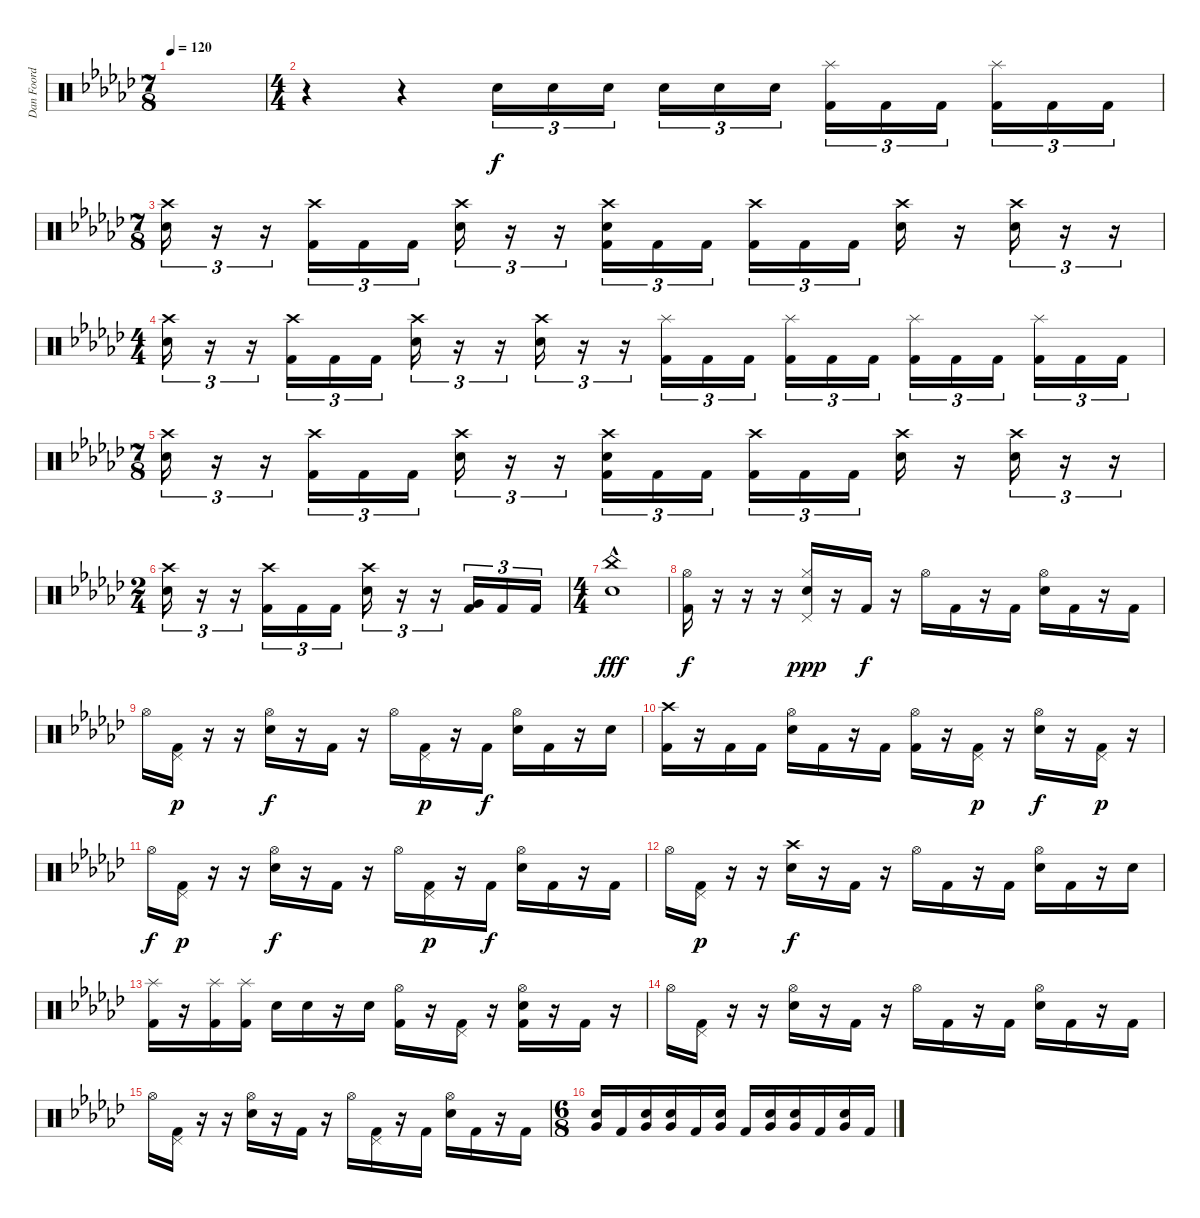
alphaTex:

\track ("Dan Foord 2" "Dan Foord ") {instrument percussion}
\staff {score}
\articulation defaults
\ts (7 8)
\tempo 120
\clef neutral
\ks gb
|
\ts (4 4)
r.4 r.4 "Snare (hit) 2".16{tu (3 2)} "Snare (hit) 2".16{tu (3 2)} "Snare (hit) 2".16{tu (3 2) beam splitsecondary} "Snare (hit) 2".16{tu (3 2)} "Snare (hit) 2".16{tu (3 2)} "Snare (hit) 2".16{tu (3 2)} ("Splash (hit)" "Kick (hit) 2").16{tu (3 2)} "Kick (hit) 2".16{tu (3 2)} "Kick (hit) 2".16{tu (3 2) beam splitsecondary} ("Splash (hit)" "Kick (hit) 2").16{tu (3 2)} "Kick (hit) 2".16{tu (3 2)} "Kick (hit) 2".16{tu (3 2)} |
\ts (7 8)
("Crash high (hit)" "Snare (hit) 2").16{tu (3 2)} r.16{tu (3 2)} r.16{tu (3 2)} ("Crash high (hit)" "Kick (hit) 2").16{tu (3 2)} "Kick (hit) 2".16{tu (3 2)} "Kick (hit) 2".16{tu (3 2)} ("Crash high (hit)" "Snare (hit) 2").16{tu (3 2)} r.16{tu (3 2)} r.16{tu (3 2)} ("Crash high (hit)" "Snare (hit) 2" "Kick (hit) 2").16{tu (3 2)} "Kick (hit) 2".16{tu (3 2)} "Kick (hit) 2".16{tu (3 2)} ("Crash high (hit)" "Kick (hit) 2").16{tu (3 2)} "Kick (hit) 2".16{tu (3 2)} "Kick (hit) 2".16{tu (3 2)} ("Crash high (hit)" "Snare (hit) 2").16 r.16 ("Crash high (hit)" "Snare (hit) 2").16{tu (3 2)} r.16{tu (3 2)} r.16{tu (3 2)} |
\ts (4 4)
("Crash high (hit)" "Snare (hit) 2").16{tu (3 2)} r.16{tu (3 2)} r.16{tu (3 2)} ("Crash high (hit)" "Kick (hit) 2").16{tu (3 2)} "Kick (hit) 2".16{tu (3 2)} "Kick (hit) 2".16{tu (3 2)} ("Crash high (hit)" "Snare (hit) 2").16{tu (3 2)} r.16{tu (3 2)} r.16{tu (3 2)} ("Crash high (hit)" "Snare (hit) 2").16{tu (3 2)} r.16{tu (3 2)} r.16{tu (3 2)} ("Splash (hit)" "Kick (hit) 2").16{tu (3 2)} "Kick (hit) 2".16{tu (3 2)} "Kick (hit) 2".16{tu (3 2) beam splitsecondary} ("Splash (hit)" "Kick (hit) 2").16{tu (3 2)} "Kick (hit) 2".16{tu (3 2)} "Kick (hit) 2".16{tu (3 2)} ("Splash (hit)" "Kick (hit) 2").16{tu (3 2)} "Kick (hit) 2".16{tu (3 2)} "Kick (hit) 2".16{tu (3 2) beam splitsecondary} ("Splash (hit)" "Kick (hit) 2").16{tu (3 2)} "Kick (hit) 2".16{tu (3 2)} "Kick (hit) 2".16{tu (3 2)} |
\ts (7 8)
("Crash high (hit)" "Snare (hit) 2").16{tu (3 2)} r.16{tu (3 2)} r.16{tu (3 2)} ("Crash high (hit)" "Kick (hit) 2").16{tu (3 2)} "Kick (hit) 2".16{tu (3 2)} "Kick (hit) 2".16{tu (3 2)} ("Crash high (hit)" "Snare (hit) 2").16{tu (3 2)} r.16{tu (3 2)} r.16{tu (3 2)} ("Crash high (hit)" "Snare (hit) 2" "Kick (hit) 2").16{tu (3 2)} "Kick (hit) 2".16{tu (3 2)} "Kick (hit) 2".16{tu (3 2)} ("Crash high (hit)" "Kick (hit) 2").16{tu (3 2)} "Kick (hit) 2".16{tu (3 2)} "Kick (hit) 2".16{tu (3 2)} ("Crash high (hit)" "Snare (hit) 2").16 r.16 ("Crash high (hit)" "Snare (hit) 2").16{tu (3 2)} r.16{tu (3 2)} r.16{tu (3 2)} |
\ts (2 4)
("Crash high (hit)" "Snare (hit) 2").16{tu (3 2)} r.16{tu (3 2)} r.16{tu (3 2)} ("Crash high (hit)" "Kick (hit) 2").16{tu (3 2)} "Kick (hit) 2".16{tu (3 2)} "Kick (hit) 2".16{tu (3 2)} ("Crash high (hit)" "Snare (hit) 2").16{tu (3 2)} r.16{tu (3 2)} r.16{tu (3 2)} ("Very Low Tom (hit)" "Kick (hit) 2").16{tu (3 2)} "Kick (hit) 2".16{tu (3 2)} "Kick (hit) 2".16{tu (3 2)} |
\ts (4 4)
("China (hit)" "Snare (hit) 2"{hac}).1{dy fff} |
("Hi-Hat (open)" "Kick (hit) 2").16{dy f} r.16 r.16 r.16 ("Hi-Hat (closed)" "Snare (hit) 2" "Pedal Hi-Hat (hit)").16{dy ppp} r.16 "Kick (hit) 2".16{dy f} r.16 "Hi-Hat (open)".16 "Kick (hit) 2".16 r.16 "Kick (hit) 2".16 ("Hi-Hat (open)" "Snare (hit) 2").16 "Kick (hit) 2".16 r.16 "Kick (hit) 2".16 |
"Hi-Hat (open)".16 ("Pedal Hi-Hat (hit)" "Kick (hit) 2").16{dy p} r.16 r.16 ("Hi-Hat (open)" "Snare (hit) 2").16{dy f} r.16 "Kick (hit) 2".16 r.16 "Hi-Hat (open)".16 ("Pedal Hi-Hat (hit)" "Kick (hit) 2").16{dy p} r.16 "Kick (hit) 2".16{dy f} ("Hi-Hat (open)" "Snare (hit) 2").16 "Kick (hit) 2".16 r.16 "Snare (hit) 2".16 |
("Crash high (hit)" "Kick (hit) 2").16 r.16 "Kick (hit) 2".16 "Kick (hit) 2".16 ("Hi-Hat (open)" "Snare (hit) 2").16 "Kick (hit) 2".16 r.16 "Kick (hit) 2".16 ("Hi-Hat (open)" "Kick (hit) 2").16 r.16 ("Pedal Hi-Hat (hit)" "Kick (hit) 2").16{dy p} r.16 ("Hi-Hat (open)" "Snare (hit) 2").16{dy f} r.16 ("Pedal Hi-Hat (hit)" "Kick (hit) 2").16{dy p} r.16 |
"Hi-Hat (open)".16{dy f} ("Pedal Hi-Hat (hit)" "Kick (hit) 2").16{dy p} r.16 r.16 ("Hi-Hat (open)" "Snare (hit) 2").16{dy f} r.16 "Kick (hit) 2".16 r.16 "Hi-Hat (open)".16 ("Pedal Hi-Hat (hit)" "Kick (hit) 2").16{dy p} r.16 "Kick (hit) 2".16{dy f} ("Hi-Hat (open)" "Snare (hit) 2").16 "Kick (hit) 2".16 r.16 "Kick (hit) 2".16 |
"Hi-Hat (open)".16 ("Pedal Hi-Hat (hit)" "Kick (hit) 2").16{dy p} r.16 r.16 ("Crash high (hit)" "Snare (hit) 2").16{dy f} r.16 "Kick (hit) 2".16 r.16 "Hi-Hat (open)".16 "Kick (hit) 2".16 r.16 "Kick (hit) 2".16 ("Hi-Hat (open)" "Snare (hit) 2").16 "Kick (hit) 2".16 r.16 "Snare (hit) 2".16 |
("Splash (hit)" "Kick (hit) 2").16 r.16 ("Splash (hit)" "Kick (hit) 2").16 ("Splash (hit)" "Kick (hit) 2").16 "Snare (hit) 2".16 "Snare (hit) 2".16 r.16 "Snare (hit) 2".16 ("Hi-Hat (open)" "Kick (hit) 2").16 r.16 ("Pedal Hi-Hat (hit)" "Kick (hit) 2").16 r.16 ("Hi-Hat (open)" "Snare (hit) 2" "Kick (hit) 2").16 r.16 "Kick (hit) 2".16 r.16 |
"Hi-Hat (open)".16 ("Pedal Hi-Hat (hit)" "Kick (hit) 2").16 r.16 r.16 ("Hi-Hat (open)" "Snare (hit) 2").16 r.16 "Kick (hit) 2".16 r.16 "Hi-Hat (open)".16 "Kick (hit) 2".16 r.16 "Kick (hit) 2".16 ("Hi-Hat (open)" "Snare (hit) 2").16 "Kick (hit) 2".16 r.16 "Kick (hit) 2".16 |
"Hi-Hat (open)".16 ("Kick (hit) 2" "Pedal Hi-Hat (hit)").16 r.16 r.16 ("Hi-Hat (open)" "Snare (hit) 2").16 r.16 "Kick (hit) 2".16 r.16 "Hi-Hat (open)".16 ("Kick (hit) 2" "Pedal Hi-Hat (hit)").16 r.16 "Kick (hit) 2".16 ("Hi-Hat (open)" "Snare (hit) 2").16 "Kick (hit) 2".16 r.16 "Kick (hit) 2".16 |
\ts (6 8)
("Snare (hit) 2" "Very Low Tom (hit)").16 "Kick (hit) 2".16 ("Snare (hit) 2" "Very Low Tom (hit)").16 ("Snare (hit) 2" "Very Low Tom (hit)").16 "Kick (hit) 2".16 ("Snare (hit) 2" "Very Low Tom (hit)").16 "Kick (hit) 2".16 ("Snare (hit) 2" "Very Low Tom (hit)").16 ("Snare (hit) 2" "Very Low Tom (hit)").16 "Kick (hit) 2".16 ("Snare (hit) 2" "Very Low Tom (hit)").16 "Kick (hit) 2".16
